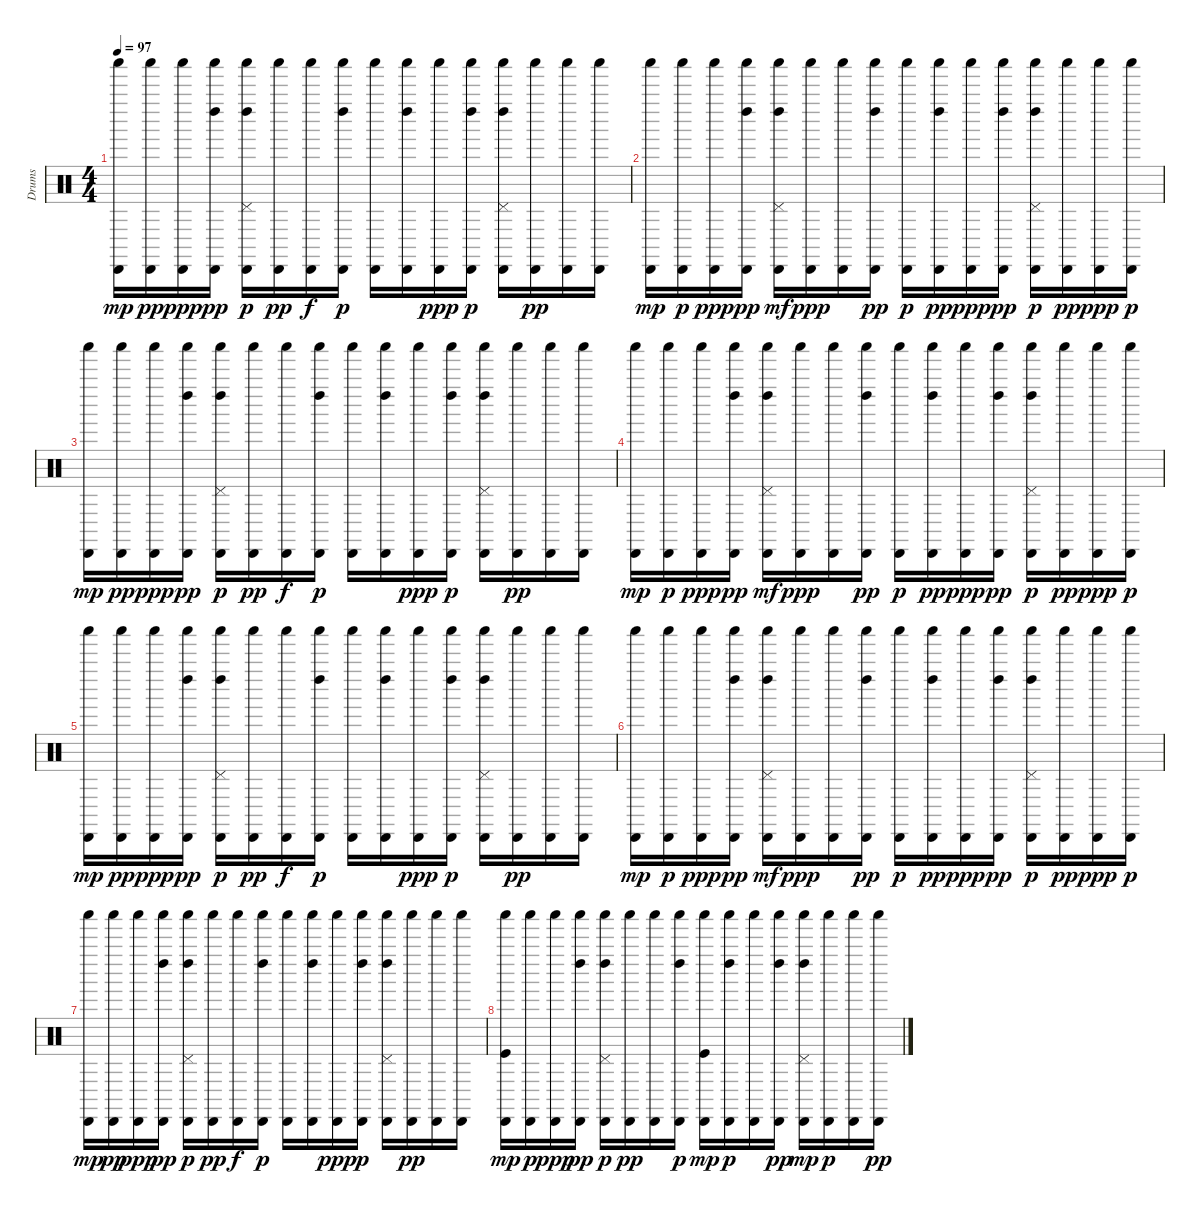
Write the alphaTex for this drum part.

\track ("Drums" "Drums") {instrument percussion}
\staff {score}
\articulation defaults
\ts (4 4)
\tempo 97
\clef neutral
\ks c
("Shaker (hit)" "Cabasa (hit)").16{dy mp} ("Cabasa (hit)" "Shaker (hit)").16{dy pp} ("Shaker (hit)" "Cabasa (hit)").16{dy ppp} ("Shaker (hit)" "Cabasa (hit)" "Left Maraca (hit)").16{dy pp} ("Shaker (hit)" "Cabasa (hit)" "Pedal Hi-Hat (hit)" "Left Maraca (hit)").16{dy p} ("Shaker (hit)" "Cabasa (hit)").16{dy pp} ("Shaker (hit)" "Cabasa (hit)").16{dy f} ("Shaker (hit)" "Cabasa (hit)" "Left Maraca (hit)").16{dy p} ("Cabasa (hit)" "Shaker (hit)").16 ("Shaker (hit)" "Cabasa (hit)" "Left Maraca (hit)").16 ("Shaker (hit)" "Cabasa (hit)").16{dy ppp} ("Shaker (hit)" "Cabasa (hit)" "Left Maraca (hit)").16{dy p} ("Pedal Hi-Hat (hit)" "Shaker (hit)" "Cabasa (hit)" "Left Maraca (hit)").16 ("Shaker (hit)" "Cabasa (hit)").16{dy pp} ("Cabasa (hit)" "Shaker (hit)").16 ("Cabasa (hit)" "Shaker (hit)").16 |
("Shaker (hit)" "Cabasa (hit)").16{dy mp} ("Shaker (hit)" "Cabasa (hit)").16{dy p} ("Shaker (hit)" "Cabasa (hit)").16{dy ppp} ("Shaker (hit)" "Cabasa (hit)" "Left Maraca (hit)").16{dy pp} ("Left Maraca (hit)" "Shaker (hit)" "Cabasa (hit)" "Pedal Hi-Hat (hit)").16{dy mf} ("Cabasa (hit)" "Shaker (hit)").16{dy ppp} ("Shaker (hit)" "Cabasa (hit)").16 ("Left Maraca (hit)" "Cabasa (hit)" "Shaker (hit)").16{dy pp} ("Cabasa (hit)" "Shaker (hit)").16{dy p} ("Left Maraca (hit)" "Cabasa (hit)" "Shaker (hit)").16{dy pp} ("Shaker (hit)" "Cabasa (hit)").16{dy ppp} ("Shaker (hit)" "Cabasa (hit)" "Left Maraca (hit)").16{dy pp} ("Left Maraca (hit)" "Shaker (hit)" "Cabasa (hit)" "Pedal Hi-Hat (hit)").16{dy p} ("Cabasa (hit)" "Shaker (hit)").16{dy pp} ("Shaker (hit)" "Cabasa (hit)").16{dy ppp} ("Shaker (hit)" "Cabasa (hit)").16{dy p} |
("Shaker (hit)" "Cabasa (hit)").16{dy mp} ("Cabasa (hit)" "Shaker (hit)").16{dy pp} ("Shaker (hit)" "Cabasa (hit)").16{dy ppp} ("Shaker (hit)" "Cabasa (hit)" "Left Maraca (hit)").16{dy pp} ("Shaker (hit)" "Cabasa (hit)" "Pedal Hi-Hat (hit)" "Left Maraca (hit)").16{dy p} ("Shaker (hit)" "Cabasa (hit)").16{dy pp} ("Shaker (hit)" "Cabasa (hit)").16{dy f} ("Shaker (hit)" "Cabasa (hit)" "Left Maraca (hit)").16{dy p} ("Cabasa (hit)" "Shaker (hit)").16 ("Shaker (hit)" "Cabasa (hit)" "Left Maraca (hit)").16 ("Shaker (hit)" "Cabasa (hit)").16{dy ppp} ("Shaker (hit)" "Cabasa (hit)" "Left Maraca (hit)").16{dy p} ("Pedal Hi-Hat (hit)" "Shaker (hit)" "Cabasa (hit)" "Left Maraca (hit)").16 ("Shaker (hit)" "Cabasa (hit)").16{dy pp} ("Cabasa (hit)" "Shaker (hit)").16 ("Cabasa (hit)" "Shaker (hit)").16 |
("Shaker (hit)" "Cabasa (hit)").16{dy mp} ("Shaker (hit)" "Cabasa (hit)").16{dy p} ("Shaker (hit)" "Cabasa (hit)").16{dy ppp} ("Shaker (hit)" "Cabasa (hit)" "Left Maraca (hit)").16{dy pp} ("Left Maraca (hit)" "Shaker (hit)" "Cabasa (hit)" "Pedal Hi-Hat (hit)").16{dy mf} ("Cabasa (hit)" "Shaker (hit)").16{dy ppp} ("Shaker (hit)" "Cabasa (hit)").16 ("Left Maraca (hit)" "Cabasa (hit)" "Shaker (hit)").16{dy pp} ("Cabasa (hit)" "Shaker (hit)").16{dy p} ("Left Maraca (hit)" "Cabasa (hit)" "Shaker (hit)").16{dy pp} ("Shaker (hit)" "Cabasa (hit)").16{dy ppp} ("Shaker (hit)" "Cabasa (hit)" "Left Maraca (hit)").16{dy pp} ("Left Maraca (hit)" "Shaker (hit)" "Cabasa (hit)" "Pedal Hi-Hat (hit)").16{dy p} ("Cabasa (hit)" "Shaker (hit)").16{dy pp} ("Shaker (hit)" "Cabasa (hit)").16{dy ppp} ("Shaker (hit)" "Cabasa (hit)").16{dy p} |
("Shaker (hit)" "Cabasa (hit)").16{dy mp} ("Cabasa (hit)" "Shaker (hit)").16{dy pp} ("Shaker (hit)" "Cabasa (hit)").16{dy ppp} ("Shaker (hit)" "Cabasa (hit)" "Left Maraca (hit)").16{dy pp} ("Shaker (hit)" "Cabasa (hit)" "Pedal Hi-Hat (hit)" "Left Maraca (hit)").16{dy p} ("Shaker (hit)" "Cabasa (hit)").16{dy pp} ("Shaker (hit)" "Cabasa (hit)").16{dy f} ("Shaker (hit)" "Cabasa (hit)" "Left Maraca (hit)").16{dy p} ("Cabasa (hit)" "Shaker (hit)").16 ("Shaker (hit)" "Cabasa (hit)" "Left Maraca (hit)").16 ("Shaker (hit)" "Cabasa (hit)").16{dy ppp} ("Shaker (hit)" "Cabasa (hit)" "Left Maraca (hit)").16{dy p} ("Pedal Hi-Hat (hit)" "Shaker (hit)" "Cabasa (hit)" "Left Maraca (hit)").16 ("Shaker (hit)" "Cabasa (hit)").16{dy pp} ("Cabasa (hit)" "Shaker (hit)").16 ("Cabasa (hit)" "Shaker (hit)").16 |
("Shaker (hit)" "Cabasa (hit)").16{dy mp} ("Shaker (hit)" "Cabasa (hit)").16{dy p} ("Shaker (hit)" "Cabasa (hit)").16{dy ppp} ("Shaker (hit)" "Cabasa (hit)" "Left Maraca (hit)").16{dy pp} ("Left Maraca (hit)" "Shaker (hit)" "Cabasa (hit)" "Pedal Hi-Hat (hit)").16{dy mf} ("Cabasa (hit)" "Shaker (hit)").16{dy ppp} ("Shaker (hit)" "Cabasa (hit)").16 ("Left Maraca (hit)" "Cabasa (hit)" "Shaker (hit)").16{dy pp} ("Cabasa (hit)" "Shaker (hit)").16{dy p} ("Left Maraca (hit)" "Cabasa (hit)" "Shaker (hit)").16{dy pp} ("Shaker (hit)" "Cabasa (hit)").16{dy ppp} ("Shaker (hit)" "Cabasa (hit)" "Left Maraca (hit)").16{dy pp} ("Left Maraca (hit)" "Shaker (hit)" "Cabasa (hit)" "Pedal Hi-Hat (hit)").16{dy p} ("Cabasa (hit)" "Shaker (hit)").16{dy pp} ("Shaker (hit)" "Cabasa (hit)").16{dy ppp} ("Shaker (hit)" "Cabasa (hit)").16{dy p} |
("Shaker (hit)" "Cabasa (hit)").16{dy mp} ("Cabasa (hit)" "Shaker (hit)").16{dy pp} ("Shaker (hit)" "Cabasa (hit)").16{dy ppp} ("Shaker (hit)" "Cabasa (hit)" "Left Maraca (hit)").16{dy pp} ("Shaker (hit)" "Cabasa (hit)" "Pedal Hi-Hat (hit)" "Left Maraca (hit)").16{dy p} ("Shaker (hit)" "Cabasa (hit)").16{dy pp} ("Shaker (hit)" "Cabasa (hit)").16{dy f} ("Shaker (hit)" "Cabasa (hit)" "Left Maraca (hit)").16{dy p} ("Cabasa (hit)" "Shaker (hit)").16 ("Shaker (hit)" "Cabasa (hit)" "Left Maraca (hit)").16 ("Shaker (hit)" "Cabasa (hit)").16{dy ppp} ("Shaker (hit)" "Cabasa (hit)" "Left Maraca (hit)").16{dy p} ("Pedal Hi-Hat (hit)" "Shaker (hit)" "Cabasa (hit)" "Left Maraca (hit)").16 ("Shaker (hit)" "Cabasa (hit)").16{dy pp} ("Cabasa (hit)" "Shaker (hit)").16 ("Cabasa (hit)" "Shaker (hit)").16 |
("Shaker (hit)" "Kick (hit)" "Cabasa (hit)").16{dy mp} ("Shaker (hit)" "Cabasa (hit)").16{dy p} ("Shaker (hit)" "Cabasa (hit)").16{dy ppp} ("Shaker (hit)" "Cabasa (hit)" "Left Maraca (hit)").16{dy pp} ("Pedal Hi-Hat (hit)" "Shaker (hit)" "Cabasa (hit)" "Left Maraca (hit)").16{dy p} ("Shaker (hit)" "Cabasa (hit)").16{dy pp} ("Shaker (hit)" "Cabasa (hit)").16 ("Shaker (hit)" "Cabasa (hit)" "Left Maraca (hit)").16{dy p} ("Kick (hit)" "Shaker (hit)" "Cabasa (hit)").16{dy mp} ("Shaker (hit)" "Cabasa (hit)" "Left Maraca (hit)").16{dy p} ("Shaker (hit)" "Cabasa (hit)").16 ("Shaker (hit)" "Cabasa (hit)" "Left Maraca (hit)").16{dy pp} ("Pedal Hi-Hat (hit)" "Left Maraca (hit)" "Shaker (hit)" "Cabasa (hit)").16{dy mp} ("Shaker (hit)" "Cabasa (hit)").16{dy p} ("Shaker (hit)" "Cabasa (hit)").16 ("Shaker (hit)" "Cabasa (hit)").16{dy pp}
